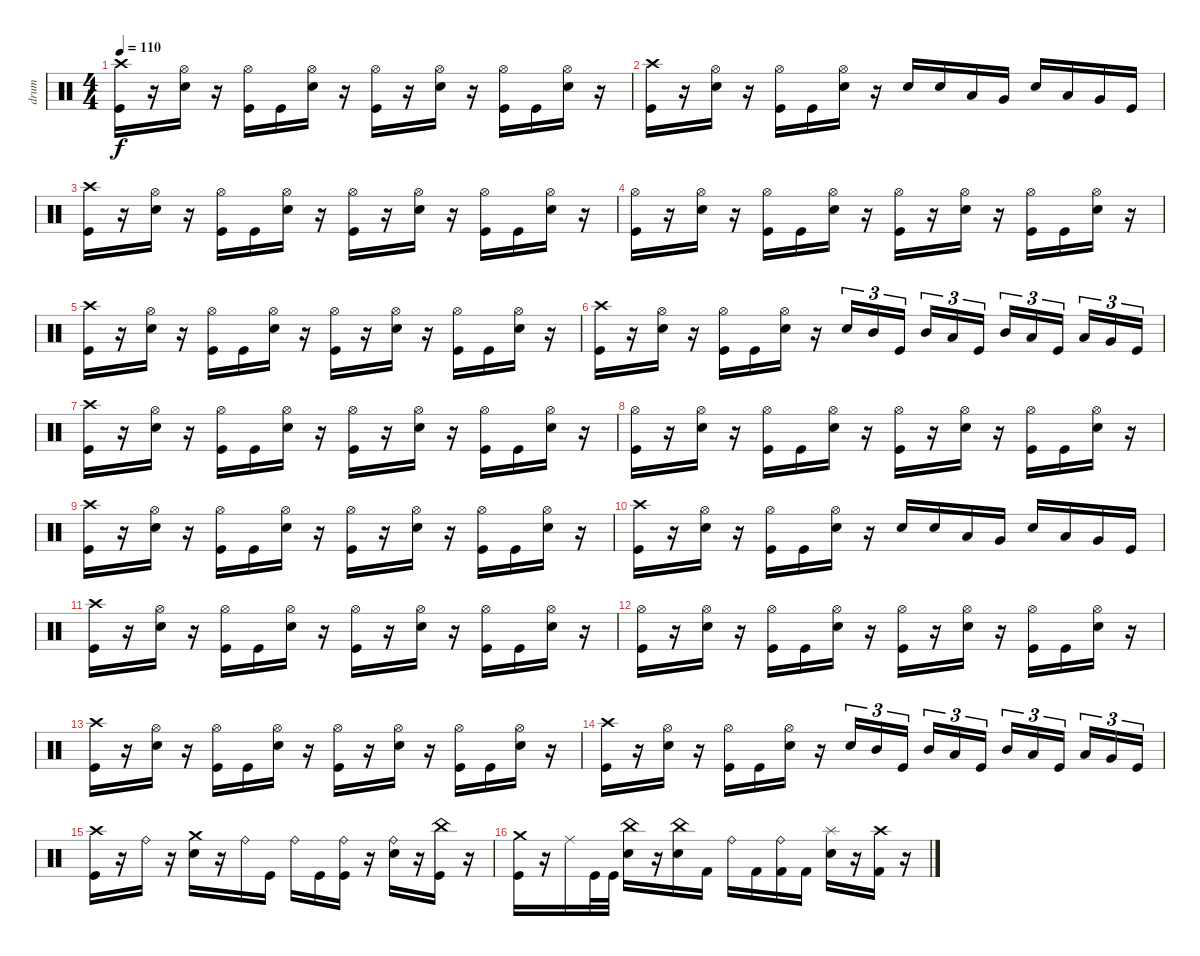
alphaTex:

\track ("drum" "drum") {instrument percussion}
\staff {score}
\articulation defaults
\ts (4 4)
\tempo 110
\clef neutral
\ks c
("Crash high (hit)" "Kick (hit)").16{dy f} r.16 ("Hi-Hat (open)" "Snare (hit) 2").16 r.16 ("Hi-Hat (open)" "Kick (hit)").16 "Kick (hit)".16 ("Hi-Hat (open)" "Snare (hit) 2").16 r.16 ("Hi-Hat (open)" "Kick (hit)").16 r.16 ("Hi-Hat (open)" "Snare (hit) 2").16 r.16 ("Hi-Hat (open)" "Kick (hit)").16 "Kick (hit)".16 ("Hi-Hat (open)" "Snare (hit) 2").16 r.16 |
("Crash high (hit)" "Kick (hit)").16 r.16 ("Hi-Hat (open)" "Snare (hit) 2").16 r.16 ("Hi-Hat (open)" "Kick (hit)").16 "Kick (hit)".16 ("Hi-Hat (open)" "Snare (hit) 2").16 r.16 "Snare (hit) 2".16 "Snare (hit) 2".16 "Low Tom (hit)".16 "Very Low Tom (hit)".16 "Snare (hit) 2".16 "Low Tom (hit)".16 "Very Low Tom (hit)".16 "Kick (hit)".16 |
("Crash high (hit)" "Kick (hit)").16 r.16 ("Hi-Hat (open)" "Snare (hit) 2").16 r.16 ("Hi-Hat (open)" "Kick (hit)").16 "Kick (hit)".16 ("Hi-Hat (open)" "Snare (hit) 2").16 r.16 ("Hi-Hat (open)" "Kick (hit)").16 r.16 ("Hi-Hat (open)" "Snare (hit) 2").16 r.16 ("Hi-Hat (open)" "Kick (hit)").16 "Kick (hit)".16 ("Hi-Hat (open)" "Snare (hit) 2").16 r.16 |
("Hi-Hat (open)" "Kick (hit)").16 r.16 ("Hi-Hat (open)" "Snare (hit) 2").16 r.16 ("Hi-Hat (open)" "Kick (hit)").16 "Kick (hit)".16 ("Hi-Hat (open)" "Snare (hit) 2").16 r.16 ("Hi-Hat (open)" "Kick (hit)").16 r.16 ("Hi-Hat (open)" "Snare (hit) 2").16 r.16 ("Hi-Hat (open)" "Kick (hit)").16 "Kick (hit)".16 ("Hi-Hat (open)" "Snare (hit) 2").16 r.16 |
("Crash high (hit)" "Kick (hit)").16 r.16 ("Hi-Hat (open)" "Snare (hit) 2").16 r.16 ("Hi-Hat (open)" "Kick (hit)").16 "Kick (hit)".16 ("Hi-Hat (open)" "Snare (hit) 2").16 r.16 ("Hi-Hat (open)" "Kick (hit)").16 r.16 ("Hi-Hat (open)" "Snare (hit) 2").16 r.16 ("Hi-Hat (open)" "Kick (hit)").16 "Kick (hit)".16 ("Hi-Hat (open)" "Snare (hit) 2").16 r.16 |
("Crash high (hit)" "Kick (hit)").16 r.16 ("Hi-Hat (open)" "Snare (hit) 2").16 r.16 ("Hi-Hat (open)" "Kick (hit)").16 "Kick (hit)".16 ("Hi-Hat (open)" "Snare (hit) 2").16 r.16 "Snare (hit) 2".16{tu (3 2)} "Mid Tom (hit)".16{tu (3 2)} "Kick (hit)".16{tu (3 2)} "Mid Tom (hit)".16{tu (3 2)} "Low Tom (hit)".16{tu (3 2)} "Kick (hit)".16{tu (3 2)} "Mid Tom (hit)".16{tu (3 2)} "Low Tom (hit)".16{tu (3 2)} "Kick (hit)".16{tu (3 2)} "Low Tom (hit)".16{tu (3 2)} "Very Low Tom (hit)".16{tu (3 2)} "Kick (hit)".16{tu (3 2)} |
("Crash high (hit)" "Kick (hit)").16 r.16 ("Hi-Hat (open)" "Snare (hit) 2").16 r.16 ("Hi-Hat (open)" "Kick (hit)").16 "Kick (hit)".16 ("Hi-Hat (open)" "Snare (hit) 2").16 r.16 ("Hi-Hat (open)" "Kick (hit)").16 r.16 ("Hi-Hat (open)" "Snare (hit) 2").16 r.16 ("Hi-Hat (open)" "Kick (hit)").16 "Kick (hit)".16 ("Hi-Hat (open)" "Snare (hit) 2").16 r.16 |
("Hi-Hat (open)" "Kick (hit)").16 r.16 ("Hi-Hat (open)" "Snare (hit) 2").16 r.16 ("Hi-Hat (open)" "Kick (hit)").16 "Kick (hit)".16 ("Hi-Hat (open)" "Snare (hit) 2").16 r.16 ("Hi-Hat (open)" "Kick (hit)").16 r.16 ("Hi-Hat (open)" "Snare (hit) 2").16 r.16 ("Hi-Hat (open)" "Kick (hit)").16 "Kick (hit)".16 ("Hi-Hat (open)" "Snare (hit) 2").16 r.16 |
("Crash high (hit)" "Kick (hit)").16 r.16 ("Hi-Hat (open)" "Snare (hit) 2").16 r.16 ("Hi-Hat (open)" "Kick (hit)").16 "Kick (hit)".16 ("Hi-Hat (open)" "Snare (hit) 2").16 r.16 ("Hi-Hat (open)" "Kick (hit)").16 r.16 ("Hi-Hat (open)" "Snare (hit) 2").16 r.16 ("Hi-Hat (open)" "Kick (hit)").16 "Kick (hit)".16 ("Hi-Hat (open)" "Snare (hit) 2").16 r.16 |
("Crash high (hit)" "Kick (hit)").16 r.16 ("Hi-Hat (open)" "Snare (hit) 2").16 r.16 ("Hi-Hat (open)" "Kick (hit)").16 "Kick (hit)".16 ("Hi-Hat (open)" "Snare (hit) 2").16 r.16 "Snare (hit) 2".16 "Snare (hit) 2".16 "Low Tom (hit)".16 "Very Low Tom (hit)".16 "Snare (hit) 2".16 "Low Tom (hit)".16 "Very Low Tom (hit)".16 "Kick (hit)".16 |
("Crash high (hit)" "Kick (hit)").16 r.16 ("Hi-Hat (open)" "Snare (hit) 2").16 r.16 ("Hi-Hat (open)" "Kick (hit)").16 "Kick (hit)".16 ("Hi-Hat (open)" "Snare (hit) 2").16 r.16 ("Hi-Hat (open)" "Kick (hit)").16 r.16 ("Hi-Hat (open)" "Snare (hit) 2").16 r.16 ("Hi-Hat (open)" "Kick (hit)").16 "Kick (hit)".16 ("Hi-Hat (open)" "Snare (hit) 2").16 r.16 |
("Hi-Hat (open)" "Kick (hit)").16 r.16 ("Hi-Hat (open)" "Snare (hit) 2").16 r.16 ("Hi-Hat (open)" "Kick (hit)").16 "Kick (hit)".16 ("Hi-Hat (open)" "Snare (hit) 2").16 r.16 ("Hi-Hat (open)" "Kick (hit)").16 r.16 ("Hi-Hat (open)" "Snare (hit) 2").16 r.16 ("Hi-Hat (open)" "Kick (hit)").16 "Kick (hit)".16 ("Hi-Hat (open)" "Snare (hit) 2").16 r.16 |
("Crash high (hit)" "Kick (hit)").16 r.16 ("Hi-Hat (open)" "Snare (hit) 2").16 r.16 ("Hi-Hat (open)" "Kick (hit)").16 "Kick (hit)".16 ("Hi-Hat (open)" "Snare (hit) 2").16 r.16 ("Hi-Hat (open)" "Kick (hit)").16 r.16 ("Hi-Hat (open)" "Snare (hit) 2").16 r.16 ("Hi-Hat (open)" "Kick (hit)").16 "Kick (hit)".16 ("Hi-Hat (open)" "Snare (hit) 2").16 r.16 |
("Crash high (hit)" "Kick (hit)").16 r.16 ("Hi-Hat (open)" "Snare (hit) 2").16 r.16 ("Hi-Hat (open)" "Kick (hit)").16 "Kick (hit)".16 ("Hi-Hat (open)" "Snare (hit) 2").16 r.16 "Snare (hit) 2".16{tu (3 2)} "Mid Tom (hit)".16{tu (3 2)} "Kick (hit)".16{tu (3 2)} "Mid Tom (hit)".16{tu (3 2)} "Low Tom (hit)".16{tu (3 2)} "Kick (hit)".16{tu (3 2)} "Mid Tom (hit)".16{tu (3 2)} "Low Tom (hit)".16{tu (3 2)} "Kick (hit)".16{tu (3 2)} "Low Tom (hit)".16{tu (3 2)} "Very Low Tom (hit)".16{tu (3 2)} "Kick (hit)".16{tu (3 2)} |
("Crash high (hit)" "Kick (hit)").16 r.16 "Ride (bell)".16 r.16 ("Crash medium (hit)" "Snare (hit) 2").16 r.16 "Ride (bell)".16 "Kick (hit)".16 "Ride (bell)".16 "Kick (hit)".16 ("Ride (bell)" "Kick (hit)").16 r.16 ("Ride (bell)" "Snare (hit) 2").16 r.16 ("China (hit)" "Kick (hit)").16 r.16 |
("Crash medium (hit)" "Kick (hit)").16 r.16 "Ride (middle)".16 "Kick (hit)".32 "Kick (hit)".32 ("China (hit)" "Snare (hit) 2").16 r.16 ("China (hit)" "Snare (hit) 2").16 "Kick (hit) 2".16 "Ride (bell)".16 "Kick (hit) 2".16 ("Ride (bell)" "Kick (hit) 2").16 "Kick (hit) 2".16 ("Splash (hit)" "Snare (hit) 2").16 r.16 ("Crash high (hit)" "Kick (hit) 2").16 r.16
